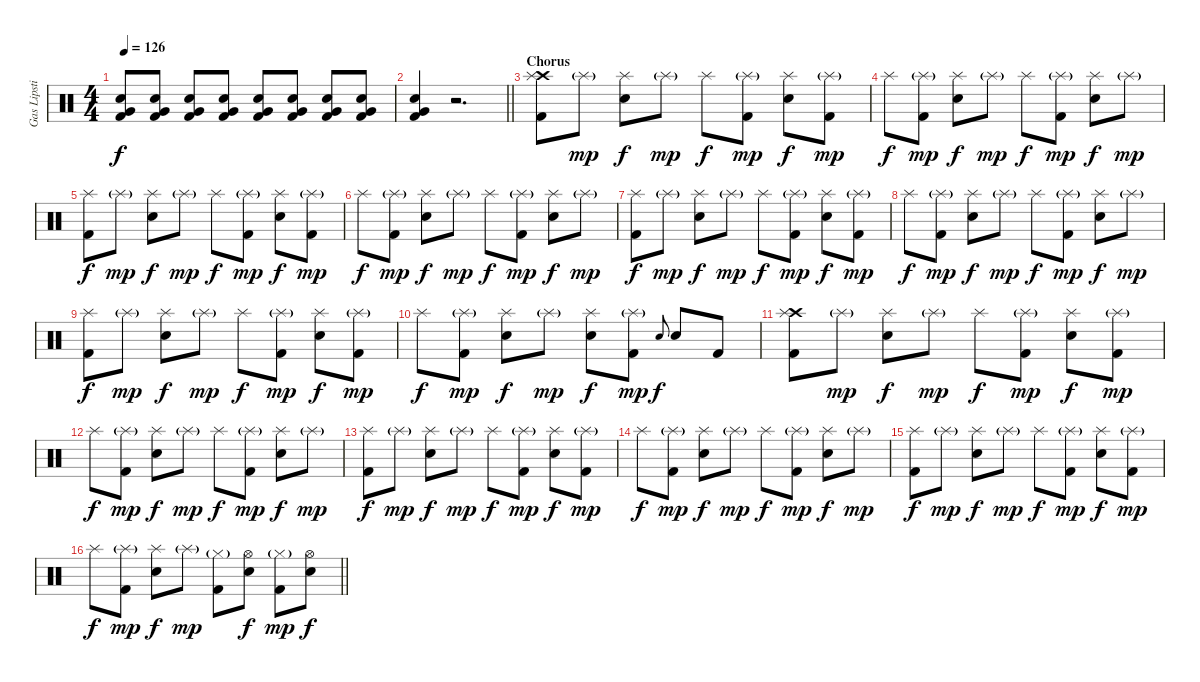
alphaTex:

\track ("Gas Lipstick (Drums)" "Gas Lipsti") {instrument percussion}
\staff {score}
\articulation defaults
\ts (4 4)
\tempo 126
\clef neutral
\ks c
("Very Low Tom (hit)" "Snare (hit) 2" "Kick (hit) 2").8{dy f} ("Very Low Tom (hit)" "Snare (hit) 2" "Kick (hit) 2").8 ("Very Low Tom (hit)" "Snare (hit) 2" "Kick (hit) 2").8 ("Very Low Tom (hit)" "Snare (hit) 2" "Kick (hit) 2").8 ("Very Low Tom (hit)" "Snare (hit) 2" "Kick (hit) 2").8 ("Very Low Tom (hit)" "Snare (hit) 2" "Kick (hit) 2").8 ("Very Low Tom (hit)" "Snare (hit) 2" "Kick (hit) 2").8 ("Very Low Tom (hit)" "Snare (hit) 2" "Kick (hit) 2").8 |
\barLineRight lightlight
("Very Low Tom (hit)" "Snare (hit) 2" "Kick (hit) 2").4 r.2{d} |
\section ("" "Chorus")
("Crash high (hit)" "Splash (hit)" "Kick (hit) 2").8 "Splash (hit)"{g}.8{dy mp} ("Splash (hit)" "Snare (hit) 2").8{dy f} "Splash (hit)"{g}.8{dy mp} "Splash (hit)".8{dy f} ("Splash (hit)"{g} "Kick (hit) 2").8{dy mp} ("Splash (hit)" "Snare (hit) 2").8{dy f} ("Splash (hit)"{g} "Kick (hit) 2").8{dy mp} |
"Splash (hit)".8{dy f} ("Splash (hit)"{g} "Kick (hit) 2").8{dy mp} ("Splash (hit)" "Snare (hit) 2").8{dy f} "Splash (hit)"{g}.8{dy mp} "Splash (hit)".8{dy f} ("Splash (hit)"{g} "Kick (hit) 2").8{dy mp} ("Splash (hit)" "Snare (hit) 2").8{dy f} "Splash (hit)"{g}.8{dy mp} |
("Splash (hit)" "Kick (hit) 2").8{dy f} "Splash (hit)"{g}.8{dy mp} ("Splash (hit)" "Snare (hit) 2").8{dy f} "Splash (hit)"{g}.8{dy mp} "Splash (hit)".8{dy f} ("Splash (hit)"{g} "Kick (hit) 2").8{dy mp} ("Splash (hit)" "Snare (hit) 2").8{dy f} ("Splash (hit)"{g} "Kick (hit) 2").8{dy mp} |
"Splash (hit)".8{dy f} ("Splash (hit)"{g} "Kick (hit) 2").8{dy mp} ("Splash (hit)" "Snare (hit) 2").8{dy f} "Splash (hit)"{g}.8{dy mp} "Splash (hit)".8{dy f} ("Splash (hit)"{g} "Kick (hit) 2").8{dy mp} ("Splash (hit)" "Snare (hit) 2").8{dy f} "Splash (hit)"{g}.8{dy mp} |
("Splash (hit)" "Kick (hit) 2").8{dy f} "Splash (hit)"{g}.8{dy mp} ("Splash (hit)" "Snare (hit) 2").8{dy f} "Splash (hit)"{g}.8{dy mp} "Splash (hit)".8{dy f} ("Splash (hit)"{g} "Kick (hit) 2").8{dy mp} ("Splash (hit)" "Snare (hit) 2").8{dy f} ("Splash (hit)"{g} "Kick (hit) 2").8{dy mp} |
"Splash (hit)".8{dy f} ("Splash (hit)"{g} "Kick (hit) 2").8{dy mp} ("Splash (hit)" "Snare (hit) 2").8{dy f} "Splash (hit)"{g}.8{dy mp} "Splash (hit)".8{dy f} ("Splash (hit)"{g} "Kick (hit) 2").8{dy mp} ("Splash (hit)" "Snare (hit) 2").8{dy f} "Splash (hit)"{g}.8{dy mp} |
("Splash (hit)" "Kick (hit) 2").8{dy f} "Splash (hit)"{g}.8{dy mp} ("Splash (hit)" "Snare (hit) 2").8{dy f} "Splash (hit)"{g}.8{dy mp} "Splash (hit)".8{dy f} ("Splash (hit)"{g} "Kick (hit) 2").8{dy mp} ("Splash (hit)" "Snare (hit) 2").8{dy f} ("Splash (hit)"{g} "Kick (hit) 2").8{dy mp} |
"Splash (hit)".8{dy f} ("Splash (hit)"{g} "Kick (hit) 2").8{dy mp} ("Splash (hit)" "Snare (hit) 2").8{dy f} "Splash (hit)"{g}.8{dy mp} ("Splash (hit)" "Snare (hit) 2").8{dy f} ("Splash (hit)"{g} "Kick (hit) 2").8{dy mp} "Snare (hit) 2".8{gr onbeat dy f} "Snare (hit) 2".8 "Kick (hit) 2".8 |
("Crash high (hit)" "Splash (hit)" "Kick (hit) 2").8 "Splash (hit)"{g}.8{dy mp} ("Splash (hit)" "Snare (hit) 2").8{dy f} "Splash (hit)"{g}.8{dy mp} "Splash (hit)".8{dy f} ("Splash (hit)"{g} "Kick (hit) 2").8{dy mp} ("Splash (hit)" "Snare (hit) 2").8{dy f} ("Splash (hit)"{g} "Kick (hit) 2").8{dy mp} |
"Splash (hit)".8{dy f} ("Splash (hit)"{g} "Kick (hit) 2").8{dy mp} ("Splash (hit)" "Snare (hit) 2").8{dy f} "Splash (hit)"{g}.8{dy mp} "Splash (hit)".8{dy f} ("Splash (hit)"{g} "Kick (hit) 2").8{dy mp} ("Splash (hit)" "Snare (hit) 2").8{dy f} "Splash (hit)"{g}.8{dy mp} |
("Splash (hit)" "Kick (hit) 2").8{dy f} "Splash (hit)"{g}.8{dy mp} ("Splash (hit)" "Snare (hit) 2").8{dy f} "Splash (hit)"{g}.8{dy mp} "Splash (hit)".8{dy f} ("Splash (hit)"{g} "Kick (hit) 2").8{dy mp} ("Splash (hit)" "Snare (hit) 2").8{dy f} ("Splash (hit)"{g} "Kick (hit) 2").8{dy mp} |
"Splash (hit)".8{dy f} ("Splash (hit)"{g} "Kick (hit) 2").8{dy mp} ("Splash (hit)" "Snare (hit) 2").8{dy f} "Splash (hit)"{g}.8{dy mp} "Splash (hit)".8{dy f} ("Splash (hit)"{g} "Kick (hit) 2").8{dy mp} ("Splash (hit)" "Snare (hit) 2").8{dy f} "Splash (hit)"{g}.8{dy mp} |
("Splash (hit)" "Kick (hit) 2").8{dy f} "Splash (hit)"{g}.8{dy mp} ("Splash (hit)" "Snare (hit) 2").8{dy f} "Splash (hit)"{g}.8{dy mp} "Splash (hit)".8{dy f} ("Splash (hit)"{g} "Kick (hit) 2").8{dy mp} ("Splash (hit)" "Snare (hit) 2").8{dy f} ("Splash (hit)"{g} "Kick (hit) 2").8{dy mp} |
\barLineRight lightlight "Splash (hit)".8{dy f}
("Splash (hit)"{g} "Kick (hit) 2").8{dy mp} ("Splash (hit)" "Snare (hit) 2").8{dy f} "Splash (hit)"{g}.8{dy mp} ("Hi-Hat (closed)"{g} "Kick (hit) 2").8 ("Hi-Hat (open)" "Snare (hit) 2").8{dy f} ("Hi-Hat (closed)"{g} "Kick (hit) 2").8{dy mp} ("Hi-Hat (open)" "Snare (hit) 2").8{dy f}
